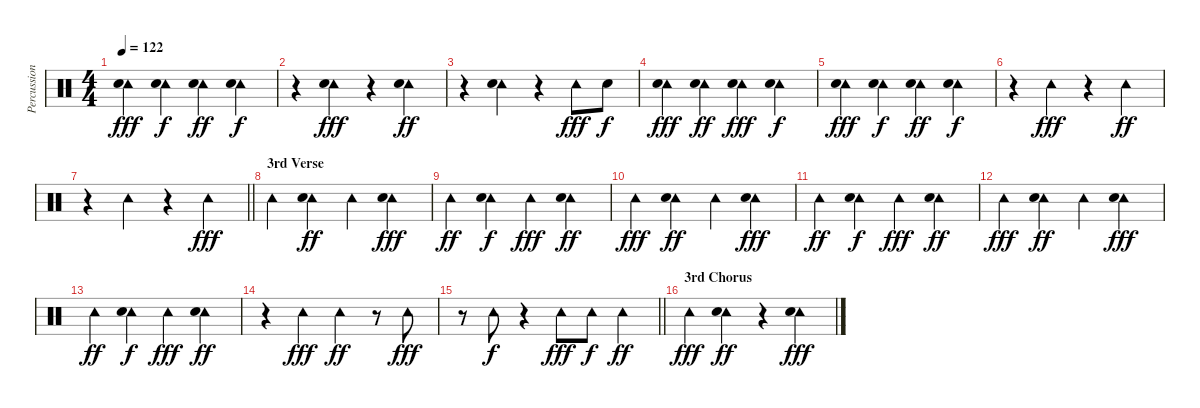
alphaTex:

\track ("Percussion" "Percussion") {instrument percussion}
\staff {score}
\articulation defaults
\ts (4 4)
\tempo 122
\clef neutral
\ks c
("Tambourine (hit)" "Hand Clap (hit)").4{dy fff} ("Tambourine (hit)" "Hand Clap (hit)").4{dy f} ("Tambourine (hit)" "Hand Clap (hit)").4{dy ff} ("Tambourine (hit)" "Hand Clap (hit)").4{dy f} |
r.4 ("Tambourine (hit)" "Hand Clap (hit)").4{dy fff} r.4 ("Tambourine (hit)" "Hand Clap (hit)").4{dy ff} |
r.4 ("Tambourine (hit)" "Hand Clap (hit)").4 r.4 "Tambourine (hit)".8{dy fff} "Hand Clap (hit)".8{dy f} |
("Tambourine (hit)" "Hand Clap (hit)").4{dy fff} ("Tambourine (hit)" "Hand Clap (hit)").4{dy ff} ("Tambourine (hit)" "Hand Clap (hit)").4{dy fff} ("Tambourine (hit)" "Hand Clap (hit)").4{dy f} |
("Tambourine (hit)" "Hand Clap (hit)").4{dy fff} ("Tambourine (hit)" "Hand Clap (hit)").4{dy f} ("Tambourine (hit)" "Hand Clap (hit)").4{dy ff} ("Tambourine (hit)" "Hand Clap (hit)").4{dy f} |
r.4 "Tambourine (hit)".4{dy fff} r.4 "Tambourine (hit)".4{dy ff} |
\barLineRight lightlight
r.4 "Tambourine (hit)".4 r.4 "Tambourine (hit)".4{dy fff} |
\section ("" "3rd Verse")
"Tambourine (hit)".4 ("Tambourine (hit)" "Hand Clap (hit)").4{dy ff} "Tambourine (hit)".4 ("Tambourine (hit)" "Hand Clap (hit)").4{dy fff} |
"Tambourine (hit)".4{dy ff} ("Tambourine (hit)" "Hand Clap (hit)").4{dy f} "Tambourine (hit)".4{dy fff} ("Tambourine (hit)" "Hand Clap (hit)").4{dy ff} |
"Tambourine (hit)".4{dy fff} ("Tambourine (hit)" "Hand Clap (hit)").4{dy ff} "Tambourine (hit)".4 ("Tambourine (hit)" "Hand Clap (hit)").4{dy fff} |
"Tambourine (hit)".4{dy ff} ("Tambourine (hit)" "Hand Clap (hit)").4{dy f} "Tambourine (hit)".4{dy fff} ("Tambourine (hit)" "Hand Clap (hit)").4{dy ff} |
"Tambourine (hit)".4{dy fff} ("Tambourine (hit)" "Hand Clap (hit)").4{dy ff} "Tambourine (hit)".4 ("Tambourine (hit)" "Hand Clap (hit)").4{dy fff} |
"Tambourine (hit)".4{dy ff} ("Tambourine (hit)" "Hand Clap (hit)").4{dy f} "Tambourine (hit)".4{dy fff} ("Tambourine (hit)" "Hand Clap (hit)").4{dy ff} |
r.4 "Tambourine (hit)".4{dy fff} "Tambourine (hit)".4{dy ff} r.8 "Tambourine (hit)".8{dy fff} |
\barLineRight lightlight
r.8 "Tambourine (hit)".8{dy f} r.4 "Tambourine (hit)".8{dy fff} "Tambourine (hit)".8{dy f} "Tambourine (hit)".4{dy ff} |
\section ("" "3rd Chorus")
"Tambourine (hit)".4{dy fff} ("Tambourine (hit)" "Hand Clap (hit)").4{dy ff} r.4 ("Tambourine (hit)" "Hand Clap (hit)").4{dy fff}
